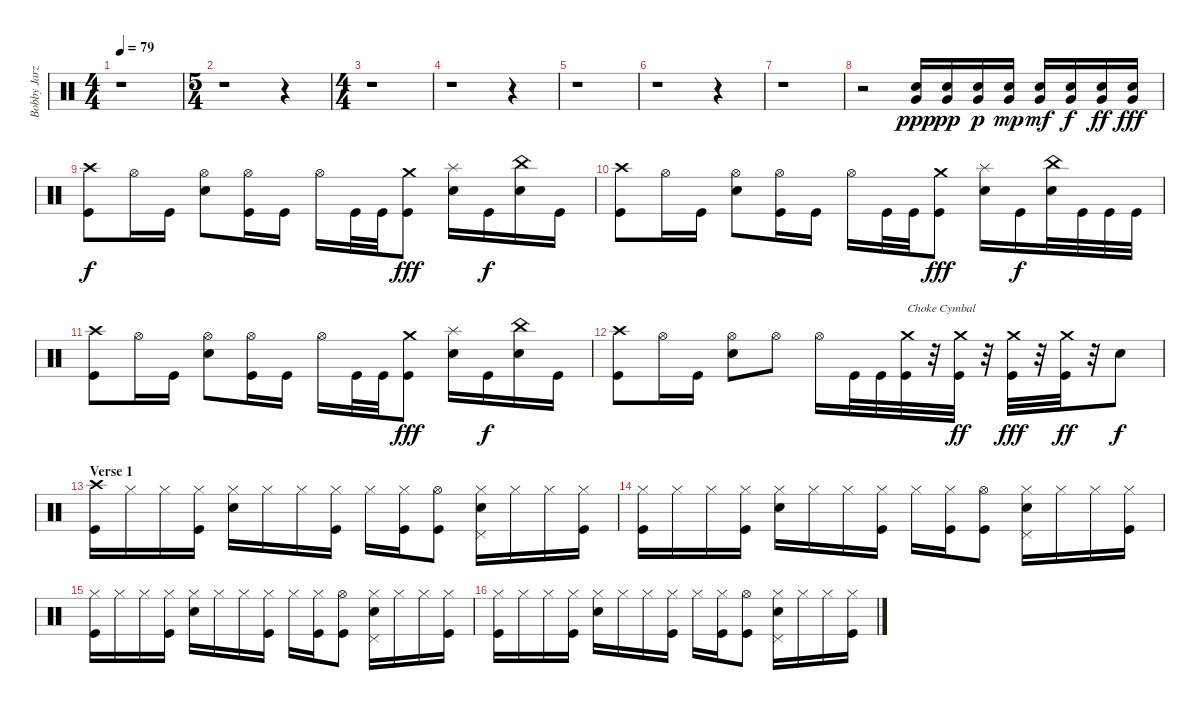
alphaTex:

\track ("Bobby Jarzombek" "Bobby Jarz") {instrument percussion}
\staff {score}
\articulation defaults
\ts (4 4)
\tempo 79
\clef neutral
\ks c
r.1{dy ppp} |
\ts (5 4)
r.1 r.4 |
\ts (4 4)
r.1 |
r.1 r.4 |
r.1 |
r.1 r.4 |
r.1 |
r.2 ("Very Low Tom (hit)" "Electric Snare (hit)").16 ("Very Low Tom (hit)" "Electric Snare (hit)").16{dy pp} ("Very Low Tom (hit)" "Electric Snare (hit)").16{dy p} ("Very Low Tom (hit)" "Electric Snare (hit)").16{dy mp} ("Very Low Tom (hit)" "Electric Snare (hit)").16{dy mf} ("Very Low Tom (hit)" "Electric Snare (hit)").16{dy f} ("Very Low Tom (hit)" "Electric Snare (hit)").16{dy ff} ("Very Low Tom (hit)" "Electric Snare (hit)").16{dy fff} |
("Crash high (hit)" "Kick (hit)").8{dy f} "Hi-Hat (open)".16 "Kick (hit)".16 ("Hi-Hat (open)" "Electric Snare (hit)").8 ("Hi-Hat (open)" "Kick (hit)").16 "Kick (hit)".16 "Hi-Hat (open)".16 "Kick (hit)".32 "Kick (hit)".32 ("Crash medium (hit)" "Kick (hit)").8{dy fff} ("Splash (hit)" "Electric Snare (hit)").16 "Kick (hit)".16{dy f} ("China (hit)" "Electric Snare (hit)").16 "Kick (hit)".16 |
("Crash high (hit)" "Kick (hit)").8 "Hi-Hat (open)".16 "Kick (hit)".16 ("Hi-Hat (open)" "Electric Snare (hit)").8 ("Hi-Hat (open)" "Kick (hit)").16 "Kick (hit)".16 "Hi-Hat (open)".16 "Kick (hit)".32 "Kick (hit)".32 ("Crash medium (hit)" "Kick (hit)").8{dy fff} ("Splash (hit)" "Electric Snare (hit)").16 "Kick (hit)".16{dy f} ("China (hit)" "Electric Snare (hit)").32 "Kick (hit)".32 "Kick (hit)".32 "Kick (hit)".32 |
("Crash high (hit)" "Kick (hit)").8 "Hi-Hat (open)".16 "Kick (hit)".16 ("Hi-Hat (open)" "Electric Snare (hit)").8 ("Hi-Hat (open)" "Kick (hit)").16 "Kick (hit)".16 "Hi-Hat (open)".16 "Kick (hit)".32 "Kick (hit)".32 ("Crash medium (hit)" "Kick (hit)").8{dy fff} ("Splash (hit)" "Electric Snare (hit)").16 "Kick (hit)".16{dy f} ("China (hit)" "Electric Snare (hit)").16 "Kick (hit)".16 |
("Crash high (hit)" "Kick (hit)").8 "Hi-Hat (open)".16 "Kick (hit)".16 ("Hi-Hat (open)" "Electric Snare (hit)").8 "Hi-Hat (open)".8 "Hi-Hat (open)".16 "Kick (hit)".32 "Kick (hit)".32 ("Crash medium (hit)" "Kick (hit)").32{txt "Choke Cymbal"} r.32{volume 0} ("Crash medium (hit)" "Kick (hit)").32{dy ff volume 13} r.32{volume 0} ("Crash medium (hit)" "Kick (hit)").32{dy fff volume 13} r.32{volume 0} ("Crash medium (hit)" "Kick (hit)").32{dy ff volume 13} r.32 "Electric Snare (hit)".8{dy f} |
\section ("" "Verse 1")
("Crash high (hit)" "Kick (hit)").16 "Hi-Hat (closed)".16 "Hi-Hat (closed)".16 ("Hi-Hat (closed)" "Kick (hit)").16 ("Hi-Hat (closed)" "Electric Snare (hit)").16 "Hi-Hat (closed)".16 "Hi-Hat (closed)".16 ("Hi-Hat (closed)" "Kick (hit)").16 "Hi-Hat (closed)".16 ("Hi-Hat (closed)" "Kick (hit)").16 ("Hi-Hat (open)" "Kick (hit)").8 ("Hi-Hat (closed)" "Electric Snare (hit)" "Pedal Hi-Hat (hit)").16 "Hi-Hat (closed)".16 "Hi-Hat (closed)".16 ("Hi-Hat (closed)" "Kick (hit)").16 |
("Hi-Hat (closed)" "Kick (hit)").16 "Hi-Hat (closed)".16 "Hi-Hat (closed)".16 ("Hi-Hat (closed)" "Kick (hit)").16 ("Hi-Hat (closed)" "Electric Snare (hit)").16 "Hi-Hat (closed)".16 "Hi-Hat (closed)".16 ("Hi-Hat (closed)" "Kick (hit)").16 "Hi-Hat (closed)".16 ("Hi-Hat (closed)" "Kick (hit)").16 ("Hi-Hat (open)" "Kick (hit)").8 ("Hi-Hat (closed)" "Electric Snare (hit)" "Pedal Hi-Hat (hit)").16 "Hi-Hat (closed)".16 "Hi-Hat (closed)".16 ("Hi-Hat (closed)" "Kick (hit)").16 |
("Hi-Hat (closed)" "Kick (hit)").16 "Hi-Hat (closed)".16 "Hi-Hat (closed)".16 ("Hi-Hat (closed)" "Kick (hit)").16 ("Hi-Hat (closed)" "Electric Snare (hit)").16 "Hi-Hat (closed)".16 "Hi-Hat (closed)".16 ("Hi-Hat (closed)" "Kick (hit)").16 "Hi-Hat (closed)".16 ("Hi-Hat (closed)" "Kick (hit)").16 ("Hi-Hat (open)" "Kick (hit)").8 ("Hi-Hat (closed)" "Electric Snare (hit)" "Pedal Hi-Hat (hit)").16 "Hi-Hat (closed)".16 "Hi-Hat (closed)".16 ("Hi-Hat (closed)" "Kick (hit)").16 |
("Hi-Hat (closed)" "Kick (hit)").16 "Hi-Hat (closed)".16 "Hi-Hat (closed)".16 ("Hi-Hat (closed)" "Kick (hit)").16 ("Hi-Hat (closed)" "Electric Snare (hit)").16 "Hi-Hat (closed)".16 "Hi-Hat (closed)".16 ("Hi-Hat (closed)" "Kick (hit)").16 "Hi-Hat (closed)".16 ("Hi-Hat (closed)" "Kick (hit)").16 ("Hi-Hat (open)" "Kick (hit)").8 ("Hi-Hat (closed)" "Electric Snare (hit)" "Pedal Hi-Hat (hit)").16 "Hi-Hat (closed)".16 "Hi-Hat (closed)".16 ("Hi-Hat (closed)" "Kick (hit)").16
